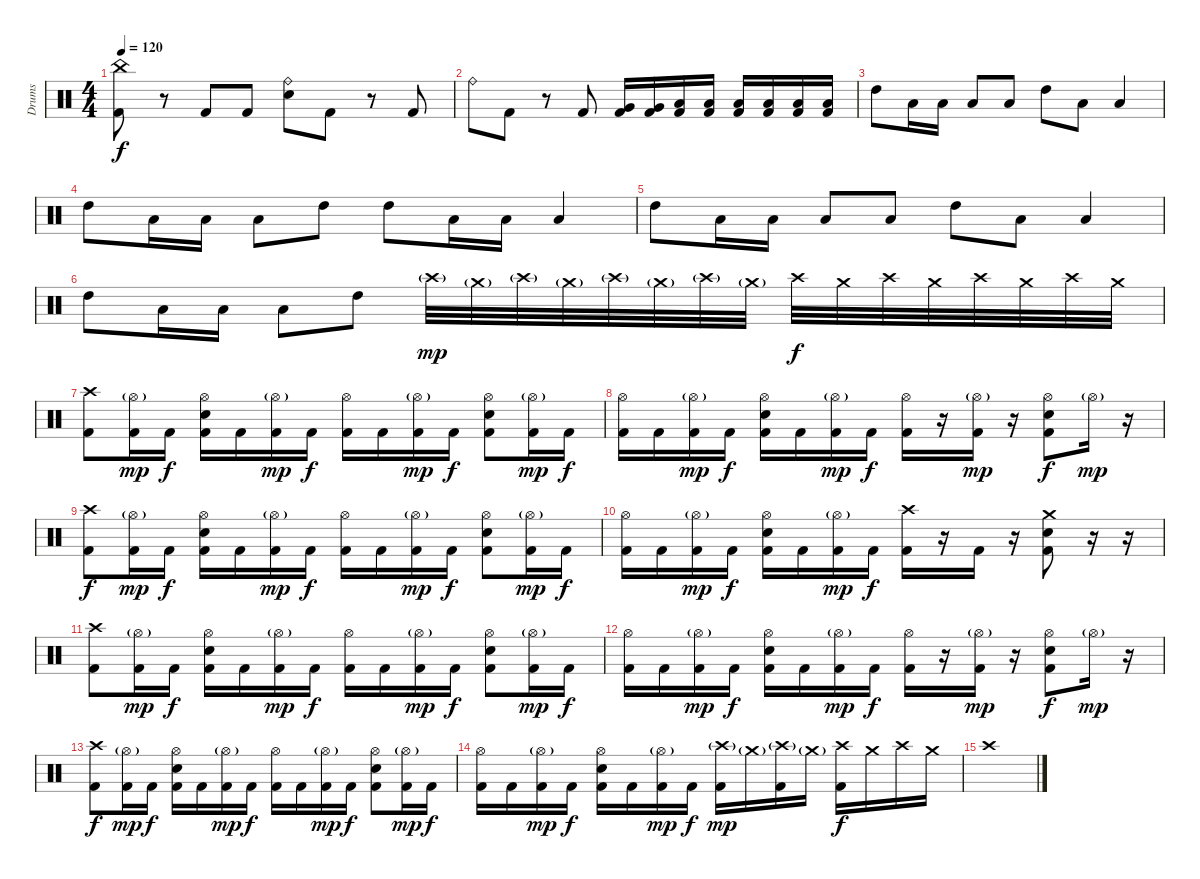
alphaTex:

\track ("Drums" "Drums") {instrument percussion}
\staff {score}
\articulation defaults
\ts (4 4)
\tempo 120
\clef neutral
\ks c
("China (hit)" "Kick (hit) 2").8{dy f} r.8 "Kick (hit) 2".8 "Kick (hit) 2".8 ("Ride (bell)" "Snare (hit) 2").8 "Kick (hit) 2".8 r.8 "Kick (hit) 2".8 |
"Ride (bell)".8 "Kick (hit) 2".8 r.8 "Kick (hit) 2".8 ("Very Low Tom (hit)" "Kick (hit) 2").16 ("Very Low Tom (hit)" "Kick (hit) 2").16 ("Low Floor Tom (hit)" "Kick (hit) 2").16 ("Low Floor Tom (hit)" "Kick (hit) 2").16 ("Low Floor Tom (hit)" "Kick (hit) 2").16 ("Low Floor Tom (hit)" "Kick (hit) 2").16 ("Low Floor Tom (hit)" "Kick (hit) 2").16 ("Low Floor Tom (hit)" "Kick (hit) 2").16 |
"High Tom (hit)".8 "Low Tom (hit)".16 "Low Tom (hit)".16 "Low Tom (hit)".8 "Low Tom (hit)".8 "High Tom (hit)".8 "Low Tom (hit)".8 "Low Tom (hit)".4 |
"High Tom (hit)".8 "Low Tom (hit)".16 "Low Tom (hit)".16 "Low Tom (hit)".8 "High Tom (hit)".8 "High Tom (hit)".8 "Low Tom (hit)".16 "Low Tom (hit)".16 "Low Tom (hit)".4 |
"High Tom (hit)".8 "Low Tom (hit)".16 "Low Tom (hit)".16 "Low Tom (hit)".8 "Low Tom (hit)".8 "High Tom (hit)".8 "Low Tom (hit)".8 "Low Tom (hit)".4 |
"High Tom (hit)".8 "Low Tom (hit)".16 "Low Tom (hit)".16 "Low Tom (hit)".8 "High Tom (hit)".8 "Crash high (hit)"{g}.32{dy mp} "Crash medium (hit)"{g}.32 "Crash high (hit)"{g}.32 "Crash medium (hit)"{g}.32 "Crash high (hit)"{g}.32 "Crash medium (hit)"{g}.32 "Crash high (hit)"{g}.32 "Crash medium (hit)"{g}.32 "Crash high (hit)".32{dy f} "Crash medium (hit)".32 "Crash high (hit)".32 "Crash medium (hit)".32 "Crash high (hit)".32 "Crash medium (hit)".32 "Crash high (hit)".32 "Crash medium (hit)".32 |
("Crash high (hit)" "Kick (hit) 2").8 ("Hi-Hat (open)"{g} "Kick (hit) 2").16{dy mp} "Kick (hit) 2".16{dy f} ("Hi-Hat (open)" "Snare (hit) 2" "Kick (hit) 2").16 "Kick (hit) 2".16 ("Hi-Hat (open)"{g} "Kick (hit) 2").16{dy mp} "Kick (hit) 2".16{dy f} ("Hi-Hat (open)" "Kick (hit) 2").16 "Kick (hit) 2".16 ("Hi-Hat (open)"{g} "Kick (hit) 2").16{dy mp} "Kick (hit) 2".16{dy f} ("Hi-Hat (open)" "Snare (hit) 2" "Kick (hit) 2").8 ("Hi-Hat (open)"{g} "Kick (hit) 2").16{dy mp} "Kick (hit) 2".16{dy f} |
("Hi-Hat (open)" "Kick (hit) 2").16 "Kick (hit) 2".16 ("Hi-Hat (open)"{g} "Kick (hit) 2").16{dy mp} "Kick (hit) 2".16{dy f} ("Hi-Hat (open)" "Snare (hit) 2" "Kick (hit) 2").16 "Kick (hit) 2".16 ("Hi-Hat (open)"{g} "Kick (hit) 2").16{dy mp} "Kick (hit) 2".16{dy f} ("Hi-Hat (open)" "Kick (hit) 2").16 r.16 ("Hi-Hat (open)"{g} "Kick (hit) 2").16{dy mp} r.16 ("Hi-Hat (open)" "Snare (hit) 2" "Kick (hit) 2").8{dy f} "Hi-Hat (open)"{g}.16{dy mp} r.16 |
("Crash high (hit)" "Kick (hit) 2").8{dy f} ("Hi-Hat (open)"{g} "Kick (hit) 2").16{dy mp} "Kick (hit) 2".16{dy f} ("Hi-Hat (open)" "Snare (hit) 2" "Kick (hit) 2").16 "Kick (hit) 2".16 ("Hi-Hat (open)"{g} "Kick (hit) 2").16{dy mp} "Kick (hit) 2".16{dy f} ("Hi-Hat (open)" "Kick (hit) 2").16 "Kick (hit) 2".16 ("Hi-Hat (open)"{g} "Kick (hit) 2").16{dy mp} "Kick (hit) 2".16{dy f} ("Hi-Hat (open)" "Snare (hit) 2" "Kick (hit) 2").8 ("Hi-Hat (open)"{g} "Kick (hit) 2").16{dy mp} "Kick (hit) 2".16{dy f} |
("Hi-Hat (open)" "Kick (hit) 2").16 "Kick (hit) 2".16 ("Hi-Hat (open)"{g} "Kick (hit) 2").16{dy mp} "Kick (hit) 2".16{dy f} ("Hi-Hat (open)" "Snare (hit) 2" "Kick (hit) 2").16 "Kick (hit) 2".16 ("Hi-Hat (open)"{g} "Kick (hit) 2").16{dy mp} "Kick (hit) 2".16{dy f} ("Crash high (hit)" "Kick (hit) 2").16 r.16 "Kick (hit) 2".16 r.16 ("Crash medium (hit)" "Snare (hit) 2" "Kick (hit) 2").8 r.16 r.16 |
("Crash high (hit)" "Kick (hit) 2").8 ("Hi-Hat (open)"{g} "Kick (hit) 2").16{dy mp} "Kick (hit) 2".16{dy f} ("Hi-Hat (open)" "Snare (hit) 2" "Kick (hit) 2").16 "Kick (hit) 2".16 ("Hi-Hat (open)"{g} "Kick (hit) 2").16{dy mp} "Kick (hit) 2".16{dy f} ("Hi-Hat (open)" "Kick (hit) 2").16 "Kick (hit) 2".16 ("Hi-Hat (open)"{g} "Kick (hit) 2").16{dy mp} "Kick (hit) 2".16{dy f} ("Hi-Hat (open)" "Snare (hit) 2" "Kick (hit) 2").8 ("Hi-Hat (open)"{g} "Kick (hit) 2").16{dy mp} "Kick (hit) 2".16{dy f} |
("Hi-Hat (open)" "Kick (hit) 2").16 "Kick (hit) 2".16 ("Hi-Hat (open)"{g} "Kick (hit) 2").16{dy mp} "Kick (hit) 2".16{dy f} ("Hi-Hat (open)" "Snare (hit) 2" "Kick (hit) 2").16 "Kick (hit) 2".16 ("Hi-Hat (open)"{g} "Kick (hit) 2").16{dy mp} "Kick (hit) 2".16{dy f} ("Hi-Hat (open)" "Kick (hit) 2").16 r.16 ("Hi-Hat (open)"{g} "Kick (hit) 2").16{dy mp} r.16 ("Hi-Hat (open)" "Snare (hit) 2" "Kick (hit) 2").8{dy f} "Hi-Hat (open)"{g}.16{dy mp} r.16 |
("Crash high (hit)" "Kick (hit) 2").8{dy f} ("Hi-Hat (open)"{g} "Kick (hit) 2").16{dy mp} "Kick (hit) 2".16{dy f} ("Hi-Hat (open)" "Snare (hit) 2" "Kick (hit) 2").16 "Kick (hit) 2".16 ("Hi-Hat (open)"{g} "Kick (hit) 2").16{dy mp} "Kick (hit) 2".16{dy f} ("Hi-Hat (open)" "Kick (hit) 2").16 "Kick (hit) 2".16 ("Hi-Hat (open)"{g} "Kick (hit) 2").16{dy mp} "Kick (hit) 2".16{dy f} ("Hi-Hat (open)" "Snare (hit) 2" "Kick (hit) 2").8 ("Hi-Hat (open)"{g} "Kick (hit) 2").16{dy mp} "Kick (hit) 2".16{dy f} |
("Hi-Hat (open)" "Kick (hit) 2").16 "Kick (hit) 2".16 ("Hi-Hat (open)"{g} "Kick (hit) 2").16{dy mp} "Kick (hit) 2".16{dy f} ("Hi-Hat (open)" "Snare (hit) 2" "Kick (hit) 2").16 "Kick (hit) 2".16 ("Hi-Hat (open)"{g} "Kick (hit) 2").16{dy mp} "Kick (hit) 2".16{dy f} ("Crash high (hit)"{g} "Kick (hit) 2").16{dy mp} "Crash medium (hit)"{g}.16 ("Crash high (hit)"{g} "Kick (hit) 2").16 "Crash medium (hit)"{g}.16 ("Crash high (hit)" "Kick (hit) 2").16{dy f} "Crash medium (hit)".16 "Crash high (hit)".16 "Crash medium (hit)".16 |
"Crash high (hit)".1
